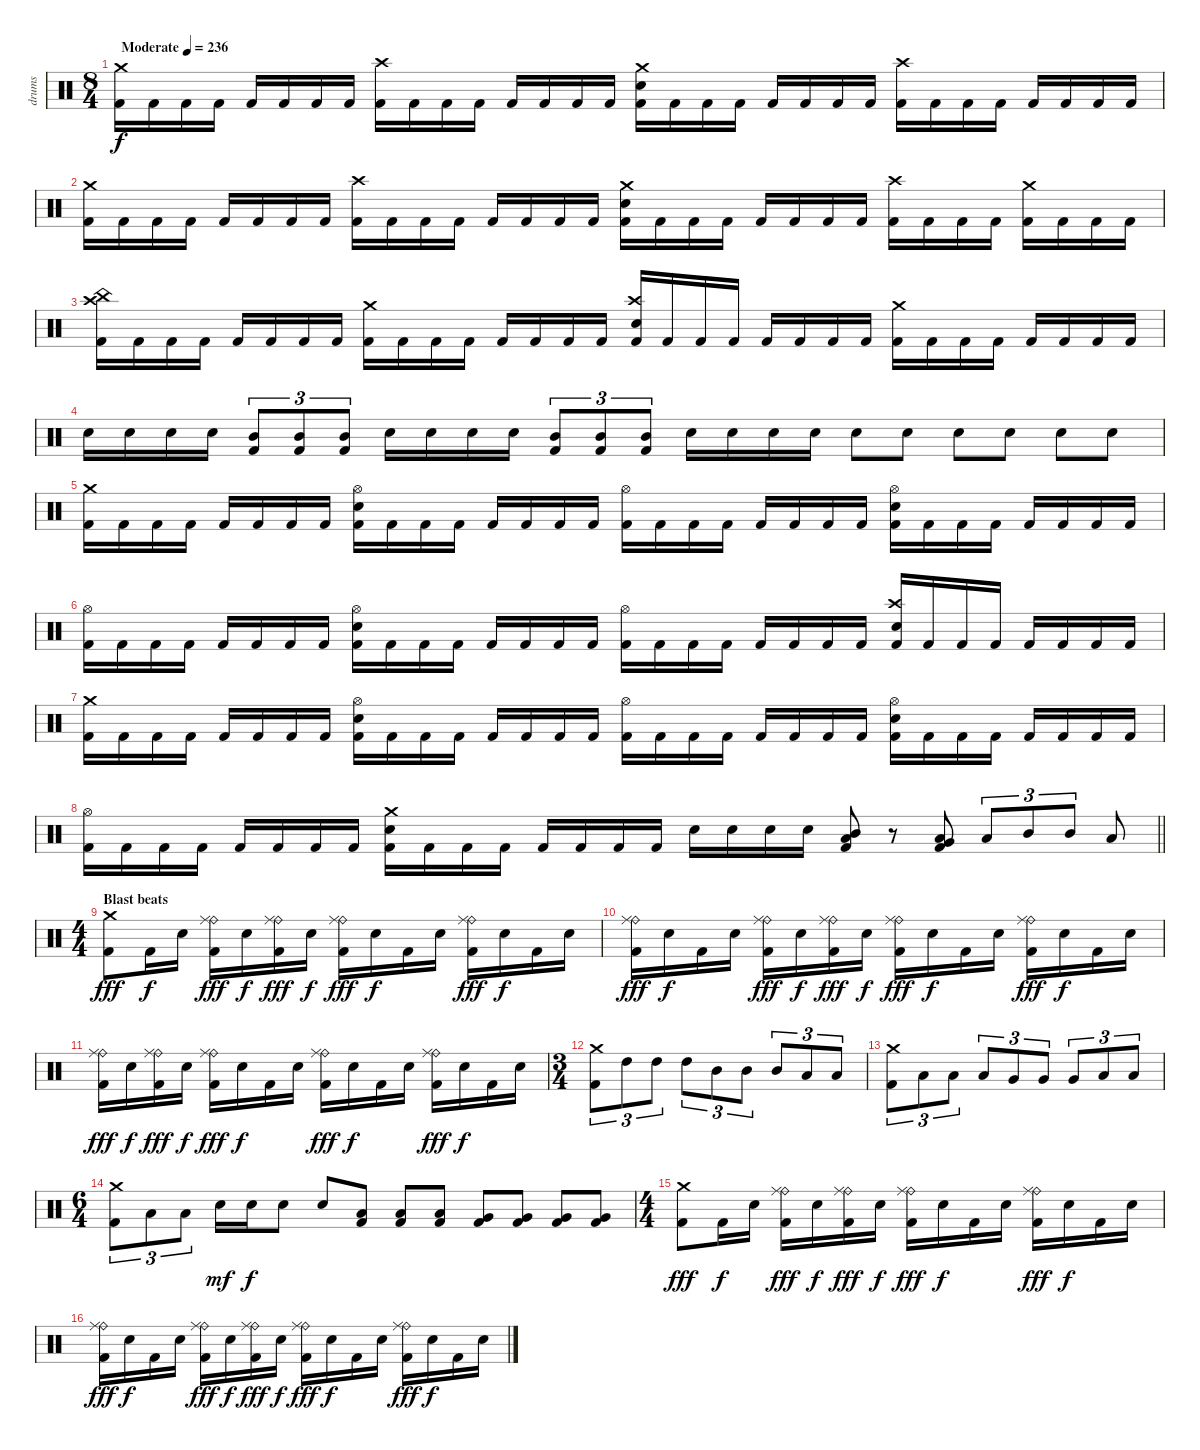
\track ("drums" "drums") {instrument percussion}
\staff {score}
\articulation defaults
\ts (8 4)
\tempo (236 "Moderate")
\clef neutral
\ks c
("Crash medium (hit)" "Kick (hit) 2").16{dy f} "Kick (hit) 2".16 "Kick (hit) 2".16 "Kick (hit) 2".16 "Kick (hit) 2".16 "Kick (hit) 2".16 "Kick (hit) 2".16 "Kick (hit) 2".16 ("Crash high (hit)" "Kick (hit) 2").16 "Kick (hit) 2".16 "Kick (hit) 2".16 "Kick (hit) 2".16 "Kick (hit) 2".16 "Kick (hit) 2".16 "Kick (hit) 2".16 "Kick (hit) 2".16 ("Crash medium (hit)" "Electric Snare (hit)" "Kick (hit) 2").16 "Kick (hit) 2".16 "Kick (hit) 2".16 "Kick (hit) 2".16 "Kick (hit) 2".16 "Kick (hit) 2".16 "Kick (hit) 2".16 "Kick (hit) 2".16 ("Crash high (hit)" "Kick (hit) 2").16 "Kick (hit) 2".16 "Kick (hit) 2".16 "Kick (hit) 2".16 "Kick (hit) 2".16 "Kick (hit) 2".16 "Kick (hit) 2".16 "Kick (hit) 2".16 |
("Crash medium (hit)" "Kick (hit) 2").16 "Kick (hit) 2".16 "Kick (hit) 2".16 "Kick (hit) 2".16 "Kick (hit) 2".16 "Kick (hit) 2".16 "Kick (hit) 2".16 "Kick (hit) 2".16 ("Crash high (hit)" "Kick (hit) 2").16 "Kick (hit) 2".16 "Kick (hit) 2".16 "Kick (hit) 2".16 "Kick (hit) 2".16 "Kick (hit) 2".16 "Kick (hit) 2".16 "Kick (hit) 2".16 ("Crash medium (hit)" "Electric Snare (hit)" "Kick (hit) 2").16 "Kick (hit) 2".16 "Kick (hit) 2".16 "Kick (hit) 2".16 "Kick (hit) 2".16 "Kick (hit) 2".16 "Kick (hit) 2".16 "Kick (hit) 2".16 ("Crash high (hit)" "Kick (hit) 2").16 "Kick (hit) 2".16 "Kick (hit) 2".16 "Kick (hit) 2".16 ("Crash medium (hit)" "Kick (hit) 2").16 "Kick (hit) 2".16 "Kick (hit) 2".16 "Kick (hit) 2".16 |
("China (hit)" "Crash high (hit)" "Kick (hit) 2").16 "Kick (hit) 2".16 "Kick (hit) 2".16 "Kick (hit) 2".16 "Kick (hit) 2".16 "Kick (hit) 2".16 "Kick (hit) 2".16 "Kick (hit) 2".16 ("Crash medium (hit)" "Kick (hit) 2").16 "Kick (hit) 2".16 "Kick (hit) 2".16 "Kick (hit) 2".16 "Kick (hit) 2".16 "Kick (hit) 2".16 "Kick (hit) 2".16 "Kick (hit) 2".16 ("Crash high (hit)" "Electric Snare (hit)" "Kick (hit) 2").16 "Kick (hit) 2".16 "Kick (hit) 2".16 "Kick (hit) 2".16 "Kick (hit) 2".16 "Kick (hit) 2".16 "Kick (hit) 2".16 "Kick (hit) 2".16 ("Crash medium (hit)" "Kick (hit) 2").16 "Kick (hit) 2".16 "Kick (hit) 2".16 "Kick (hit) 2".16 "Kick (hit) 2".16 "Kick (hit) 2".16 "Kick (hit) 2".16 "Kick (hit) 2".16 |
"Electric Snare (hit)".16 "Electric Snare (hit)".16 "Electric Snare (hit)".16 "Electric Snare (hit)".16 ("Mid Tom (hit)" "Kick (hit) 2").8{tu (3 2)} ("Mid Tom (hit)" "Kick (hit) 2").8{tu (3 2)} ("Mid Tom (hit)" "Kick (hit) 2").8{tu (3 2)} "Electric Snare (hit)".16 "Electric Snare (hit)".16 "Electric Snare (hit)".16 "Electric Snare (hit)".16 ("Mid Tom (hit)" "Kick (hit) 2").8{tu (3 2)} ("Mid Tom (hit)" "Kick (hit) 2").8{tu (3 2)} ("Mid Tom (hit)" "Kick (hit) 2").8{tu (3 2)} "Electric Snare (hit)".16 "Electric Snare (hit)".16 "Electric Snare (hit)".16 "Electric Snare (hit)".16 "Electric Snare (hit)".8 "Electric Snare (hit)".8 "Electric Snare (hit)".8 "Electric Snare (hit)".8 "Electric Snare (hit)".8 "Electric Snare (hit)".8 |
("Crash medium (hit)" "Kick (hit) 2").16 "Kick (hit) 2".16 "Kick (hit) 2".16 "Kick (hit) 2".16 "Kick (hit) 2".16 "Kick (hit) 2".16 "Kick (hit) 2".16 "Kick (hit) 2".16 ("Hi-Hat (open)" "Electric Snare (hit)" "Kick (hit) 2").16 "Kick (hit) 2".16 "Kick (hit) 2".16 "Kick (hit) 2".16 "Kick (hit) 2".16 "Kick (hit) 2".16 "Kick (hit) 2".16 "Kick (hit) 2".16 ("Hi-Hat (open)" "Kick (hit) 2").16 "Kick (hit) 2".16 "Kick (hit) 2".16 "Kick (hit) 2".16 "Kick (hit) 2".16 "Kick (hit) 2".16 "Kick (hit) 2".16 "Kick (hit) 2".16 ("Hi-Hat (open)" "Electric Snare (hit)" "Kick (hit) 2").16 "Kick (hit) 2".16 "Kick (hit) 2".16 "Kick (hit) 2".16 "Kick (hit) 2".16 "Kick (hit) 2".16 "Kick (hit) 2".16 "Kick (hit) 2".16 |
("Hi-Hat (open)" "Kick (hit) 2").16 "Kick (hit) 2".16 "Kick (hit) 2".16 "Kick (hit) 2".16 "Kick (hit) 2".16 "Kick (hit) 2".16 "Kick (hit) 2".16 "Kick (hit) 2".16 ("Hi-Hat (open)" "Electric Snare (hit)" "Kick (hit) 2").16 "Kick (hit) 2".16 "Kick (hit) 2".16 "Kick (hit) 2".16 "Kick (hit) 2".16 "Kick (hit) 2".16 "Kick (hit) 2".16 "Kick (hit) 2".16 ("Hi-Hat (open)" "Kick (hit) 2").16 "Kick (hit) 2".16 "Kick (hit) 2".16 "Kick (hit) 2".16 "Kick (hit) 2".16 "Kick (hit) 2".16 "Kick (hit) 2".16 "Kick (hit) 2".16 ("Crash high (hit)" "Electric Snare (hit)" "Kick (hit) 2").16 "Kick (hit) 2".16 "Kick (hit) 2".16 "Kick (hit) 2".16 "Kick (hit) 2".16 "Kick (hit) 2".16 "Kick (hit) 2".16 "Kick (hit) 2".16 |
("Crash medium (hit)" "Kick (hit) 2").16 "Kick (hit) 2".16 "Kick (hit) 2".16 "Kick (hit) 2".16 "Kick (hit) 2".16 "Kick (hit) 2".16 "Kick (hit) 2".16 "Kick (hit) 2".16 ("Hi-Hat (open)" "Electric Snare (hit)" "Kick (hit) 2").16 "Kick (hit) 2".16 "Kick (hit) 2".16 "Kick (hit) 2".16 "Kick (hit) 2".16 "Kick (hit) 2".16 "Kick (hit) 2".16 "Kick (hit) 2".16 ("Hi-Hat (open)" "Kick (hit) 2").16 "Kick (hit) 2".16 "Kick (hit) 2".16 "Kick (hit) 2".16 "Kick (hit) 2".16 "Kick (hit) 2".16 "Kick (hit) 2".16 "Kick (hit) 2".16 ("Hi-Hat (open)" "Electric Snare (hit)" "Kick (hit) 2").16 "Kick (hit) 2".16 "Kick (hit) 2".16 "Kick (hit) 2".16 "Kick (hit) 2".16 "Kick (hit) 2".16 "Kick (hit) 2".16 "Kick (hit) 2".16 |
\barLineRight lightlight
("Hi-Hat (open)" "Kick (hit) 2").16 "Kick (hit) 2".16 "Kick (hit) 2".16 "Kick (hit) 2".16 "Kick (hit) 2".16 "Kick (hit) 2".16 "Kick (hit) 2".16 "Kick (hit) 2".16 ("Crash medium (hit)" "Electric Snare (hit)" "Kick (hit) 2").16 "Kick (hit) 2".16 "Kick (hit) 2".16 "Kick (hit) 2".16 "Kick (hit) 2".16 "Kick (hit) 2".16 "Kick (hit) 2".16 "Kick (hit) 2".16 "Electric Snare (hit)".16 "Electric Snare (hit)".16 "Electric Snare (hit)".16 "Electric Snare (hit)".16 ("Mid Tom (hit)" "Low Tom (hit)" "Kick (hit) 2").8 r.8 ("Low Tom (hit)" "Very Low Tom (hit)" "Kick (hit) 2").8 "Low Tom (hit)".8{tu (3 2)} "Mid Tom (hit)".8{tu (3 2)} "Mid Tom (hit)".8{tu (3 2)} "Low Tom (hit)".8 |
\ts (4 4)
\section ("" "Blast beats")
("Crash medium (hit)" "Kick (hit) 2").8{dy fff} "Kick (hit) 2".16{dy f} "Electric Snare (hit)".16 ("Ride (bell)" "Ride (middle)" "Kick (hit) 2").16{dy fff} "Electric Snare (hit)".16{dy f} ("Ride (bell)" "Ride (middle)" "Kick (hit) 2").16{dy fff} "Electric Snare (hit)".16{dy f} ("Ride (bell)" "Ride (middle)" "Kick (hit) 2").16{dy fff} "Electric Snare (hit)".16{dy f} "Kick (hit) 2".16 "Electric Snare (hit)".16 ("Ride (bell)" "Ride (middle)" "Kick (hit) 2").16{dy fff} "Electric Snare (hit)".16{dy f} "Kick (hit) 2".16 "Electric Snare (hit)".16 |
("Ride (bell)" "Ride (middle)" "Kick (hit) 2").16{dy fff} "Electric Snare (hit)".16{dy f} "Kick (hit) 2".16 "Electric Snare (hit)".16 ("Ride (bell)" "Ride (middle)" "Kick (hit) 2").16{dy fff} "Electric Snare (hit)".16{dy f} ("Ride (bell)" "Ride (middle)" "Kick (hit) 2").16{dy fff} "Electric Snare (hit)".16{dy f} ("Ride (bell)" "Ride (middle)" "Kick (hit) 2").16{dy fff} "Electric Snare (hit)".16{dy f} "Kick (hit) 2".16 "Electric Snare (hit)".16 ("Ride (bell)" "Ride (middle)" "Kick (hit) 2").16{dy fff} "Electric Snare (hit)".16{dy f} "Kick (hit) 2".16 "Electric Snare (hit)".16 |
("Ride (bell)" "Ride (middle)" "Kick (hit) 2").16{dy fff} "Electric Snare (hit)".16{dy f} ("Ride (bell)" "Ride (middle)" "Kick (hit) 2").16{dy fff} "Electric Snare (hit)".16{dy f} ("Ride (bell)" "Ride (middle)" "Kick (hit) 2").16{dy fff} "Electric Snare (hit)".16{dy f} "Kick (hit) 2".16 "Electric Snare (hit)".16 ("Ride (bell)" "Ride (middle)" "Kick (hit) 2").16{dy fff} "Electric Snare (hit)".16{dy f} "Kick (hit) 2".16 "Electric Snare (hit)".16 ("Ride (bell)" "Ride (middle)" "Kick (hit) 2").16{dy fff} "Electric Snare (hit)".16{dy f} "Kick (hit) 2".16 "Electric Snare (hit)".16 |
\ts (3 4)
("Crash medium (hit)" "Kick (hit) 2").8{tu (3 2)} "High Tom (hit)".8{tu (3 2)} "High Tom (hit)".8{tu (3 2)} "High Tom (hit)".8{tu (3 2)} "Mid Tom (hit)".8{tu (3 2)} "Mid Tom (hit)".8{tu (3 2)} "Mid Tom (hit)".8{tu (3 2)} "Low Tom (hit)".8{tu (3 2)} "Low Tom (hit)".8{tu (3 2)} |
("Crash medium (hit)" "Kick (hit) 2").8{tu (3 2)} "Low Tom (hit)".8{tu (3 2)} "Low Tom (hit)".8{tu (3 2)} "Low Tom (hit)".8{tu (3 2)} "Very Low Tom (hit)".8{tu (3 2)} "Very Low Tom (hit)".8{tu (3 2)} "Very Low Tom (hit)".8{tu (3 2)} "Low Floor Tom (hit)".8{tu (3 2)} "Low Floor Tom (hit)".8{tu (3 2)} |
\ts (6 4)
("Crash medium (hit)" "Kick (hit) 2").8{tu (3 2)} "Low Tom (hit)".8{tu (3 2)} "Low Tom (hit)".8{tu (3 2)} "Electric Snare (hit)".16{dy mf} "Electric Snare (hit)".16{dy f} "Electric Snare (hit)".8 "Electric Snare (hit)".8 ("Low Tom (hit)" "Kick (hit) 2").8 ("Low Tom (hit)" "Kick (hit) 2").8 ("Low Tom (hit)" "Kick (hit) 2").8 ("Very Low Tom (hit)" "Kick (hit) 2").8 ("Very Low Tom (hit)" "Kick (hit) 2").8 ("Very Low Tom (hit)" "Kick (hit) 2").8 ("Very Low Tom (hit)" "Kick (hit) 2").8 |
\ts (4 4)
("Crash medium (hit)" "Kick (hit) 2").8{dy fff} "Kick (hit) 2".16{dy f} "Electric Snare (hit)".16 ("Ride (bell)" "Ride (middle)" "Kick (hit) 2").16{dy fff} "Electric Snare (hit)".16{dy f} ("Ride (bell)" "Ride (middle)" "Kick (hit) 2").16{dy fff} "Electric Snare (hit)".16{dy f} ("Ride (bell)" "Ride (middle)" "Kick (hit) 2").16{dy fff} "Electric Snare (hit)".16{dy f} "Kick (hit) 2".16 "Electric Snare (hit)".16 ("Ride (bell)" "Ride (middle)" "Kick (hit) 2").16{dy fff} "Electric Snare (hit)".16{dy f} "Kick (hit) 2".16 "Electric Snare (hit)".16 |
("Ride (bell)" "Ride (middle)" "Kick (hit) 2").16{dy fff} "Electric Snare (hit)".16{dy f} "Kick (hit) 2".16 "Electric Snare (hit)".16 ("Ride (bell)" "Ride (middle)" "Kick (hit) 2").16{dy fff} "Electric Snare (hit)".16{dy f} ("Ride (bell)" "Ride (middle)" "Kick (hit) 2").16{dy fff} "Electric Snare (hit)".16{dy f} ("Ride (bell)" "Ride (middle)" "Kick (hit) 2").16{dy fff} "Electric Snare (hit)".16{dy f} "Kick (hit) 2".16 "Electric Snare (hit)".16 ("Ride (bell)" "Ride (middle)" "Kick (hit) 2").16{dy fff} "Electric Snare (hit)".16{dy f} "Kick (hit) 2".16 "Electric Snare (hit)".16
